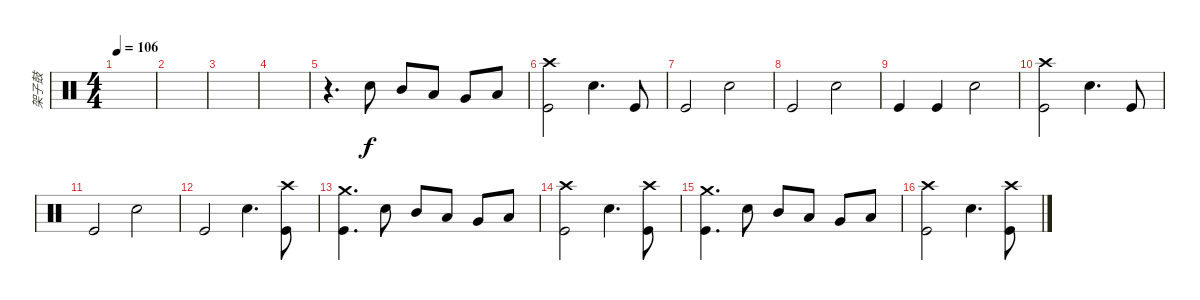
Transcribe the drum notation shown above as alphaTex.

\track ("架子鼓" "架子鼓") {instrument percussion}
\staff {score}
\articulation defaults
\ts (4 4)
\tempo 106
\clef neutral
\ks c
|
|
|
|
r.4{d} "Electric Snare (hit)".8 "Mid Tom (hit)".8 "Low Tom (hit)".8 "Very Low Tom (hit)".8 "Low Floor Tom (hit)".8 |
("Crash high (hit)" "Kick (hit)").2 "Electric Snare (hit)".4{d} "Kick (hit)".8 |
"Kick (hit)".2 "Electric Snare (hit)".2 |
"Kick (hit)".2 "Electric Snare (hit)".2 |
"Kick (hit)".4 "Kick (hit)".4 "Electric Snare (hit)".2 |
("Crash high (hit)" "Kick (hit)").2 "Electric Snare (hit)".4{d} "Kick (hit)".8 |
"Kick (hit)".2 "Electric Snare (hit)".2 |
"Kick (hit)".2 "Electric Snare (hit)".4{d} ("Crash high (hit)" "Kick (hit)").8 |
("Crash medium (hit)" "Kick (hit)").4{d} "Electric Snare (hit)".8 "Mid Tom (hit)".8 "Low Tom (hit)".8 "Very Low Tom (hit)".8 "Low Floor Tom (hit)".8 |
("Crash high (hit)" "Kick (hit)").2 "Electric Snare (hit)".4{d} ("Crash high (hit)" "Kick (hit)").8 |
("Crash medium (hit)" "Kick (hit)").4{d} "Electric Snare (hit)".8 "Mid Tom (hit)".8 "Low Tom (hit)".8 "Very Low Tom (hit)".8 "Low Floor Tom (hit)".8 |
("Crash high (hit)" "Kick (hit)").2 "Electric Snare (hit)".4{d} ("Crash high (hit)" "Kick (hit)").8
